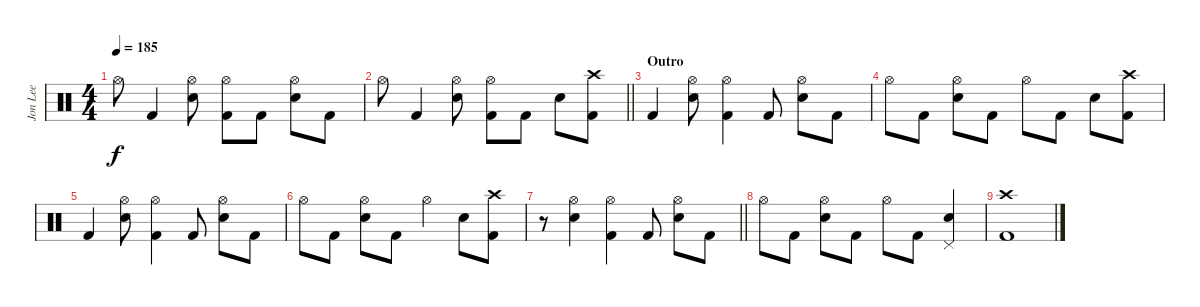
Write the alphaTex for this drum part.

\track ("Jon Lee" "Jon Lee") {instrument percussion bank 10}
\staff {score}
\articulation defaults
\ts (4 4)
\tempo 185
\clef neutral
\ks c "Hi-Hat (open)".8{dy f} "Kick (hit) 2".4
("Snare (hit) 2" "Hi-Hat (open)").8 ("Kick (hit) 2" "Hi-Hat (open)").8 "Kick (hit) 2".8 ("Snare (hit) 2" "Hi-Hat (open)").8 "Kick (hit) 2".8 |
\barLineRight lightlight "Hi-Hat (open)".8 "Kick (hit) 2".4
("Snare (hit) 2" "Hi-Hat (open)").8 ("Kick (hit) 2" "Hi-Hat (open)").8 "Kick (hit) 2".8 "Snare (hit) 2".8 ("Kick (hit) 2" "Crash high (hit)").8 |
\section ("" "Outro")
"Kick (hit) 2".4 ("Snare (hit) 2" "Hi-Hat (open)").8 ("Kick (hit) 2" "Hi-Hat (open)").4 "Kick (hit) 2".8 ("Snare (hit) 2" "Hi-Hat (open)").8 "Kick (hit) 2".8 |
"Hi-Hat (open)".8 "Kick (hit) 2".8 ("Snare (hit) 2" "Hi-Hat (open)").8 "Kick (hit) 2".8 "Hi-Hat (open)".8 "Kick (hit) 2".8 "Snare (hit) 2".8 ("Kick (hit) 2" "Crash high (hit)").8 |
"Kick (hit) 2".4 ("Snare (hit) 2" "Hi-Hat (open)").8 ("Kick (hit) 2" "Hi-Hat (open)").4 "Kick (hit) 2".8 ("Snare (hit) 2" "Hi-Hat (open)").8 "Kick (hit) 2".8 |
"Hi-Hat (open)".8 "Kick (hit) 2".8 ("Snare (hit) 2" "Hi-Hat (open)").8 "Kick (hit) 2".8 "Hi-Hat (open)".4 "Snare (hit) 2".8 ("Kick (hit) 2" "Crash high (hit)").8 |
\barLineRight lightlight
r.8 ("Snare (hit) 2" "Hi-Hat (open)").4 ("Kick (hit) 2" "Hi-Hat (open)").4 "Kick (hit) 2".8 ("Snare (hit) 2" "Hi-Hat (open)").8 "Kick (hit) 2".8 |
"Hi-Hat (open)".8 "Kick (hit) 2".8 ("Snare (hit) 2" "Hi-Hat (open)").8 "Kick (hit) 2".8 "Hi-Hat (open)".8 "Kick (hit) 2".8 ("Snare (hit) 2" "Pedal Hi-Hat (hit)").4 |
("Kick (hit) 2" "Crash high (hit)").1
